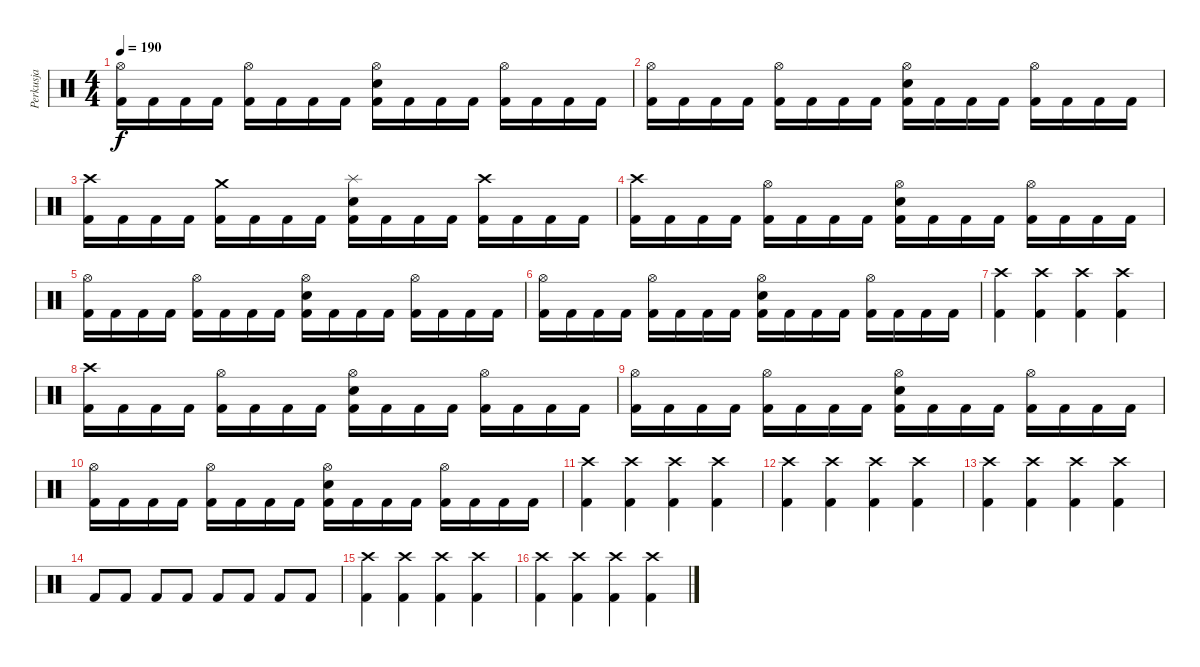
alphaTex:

\track ("Perkusja" "Perkusja") {instrument percussion}
\staff {score}
\articulation defaults
\ts (4 4)
\tempo 190
\clef neutral
\ks c
("Hi-Hat (open)" "Kick (hit) 2").16{dy f} "Kick (hit) 2".16 "Kick (hit) 2".16 "Kick (hit) 2".16 ("Hi-Hat (open)" "Kick (hit) 2").16 "Kick (hit) 2".16 "Kick (hit) 2".16 "Kick (hit) 2".16 ("Hi-Hat (open)" "Electric Snare (hit)" "Kick (hit) 2").16 "Kick (hit) 2".16 "Kick (hit) 2".16 "Kick (hit) 2".16 ("Hi-Hat (open)" "Kick (hit) 2").16 "Kick (hit) 2".16 "Kick (hit) 2".16 "Kick (hit) 2".16 |
("Hi-Hat (open)" "Kick (hit) 2").16 "Kick (hit) 2".16 "Kick (hit) 2".16 "Kick (hit) 2".16 ("Hi-Hat (open)" "Kick (hit) 2").16 "Kick (hit) 2".16 "Kick (hit) 2".16 "Kick (hit) 2".16 ("Hi-Hat (open)" "Electric Snare (hit)" "Kick (hit) 2").16 "Kick (hit) 2".16 "Kick (hit) 2".16 "Kick (hit) 2".16 ("Hi-Hat (open)" "Kick (hit) 2").16 "Kick (hit) 2".16 "Kick (hit) 2".16 "Kick (hit) 2".16 |
("Crash high (hit)" "Kick (hit) 2").16 "Kick (hit) 2".16 "Kick (hit) 2".16 "Kick (hit) 2".16 ("Crash medium (hit)" "Kick (hit) 2").16 "Kick (hit) 2".16 "Kick (hit) 2".16 "Kick (hit) 2".16 ("Splash (hit)" "Electric Snare (hit)" "Kick (hit) 2").16 "Kick (hit) 2".16 "Kick (hit) 2".16 "Kick (hit) 2".16 ("Crash high (hit)" "Kick (hit) 2").16 "Kick (hit) 2".16 "Kick (hit) 2".16 "Kick (hit) 2".16 |
("Crash high (hit)" "Kick (hit) 2").16 "Kick (hit) 2".16 "Kick (hit) 2".16 "Kick (hit) 2".16 ("Hi-Hat (open)" "Kick (hit) 2").16 "Kick (hit) 2".16 "Kick (hit) 2".16 "Kick (hit) 2".16 ("Hi-Hat (open)" "Electric Snare (hit)" "Kick (hit) 2").16 "Kick (hit) 2".16 "Kick (hit) 2".16 "Kick (hit) 2".16 ("Hi-Hat (open)" "Kick (hit) 2").16 "Kick (hit) 2".16 "Kick (hit) 2".16 "Kick (hit) 2".16 |
("Hi-Hat (open)" "Kick (hit) 2").16 "Kick (hit) 2".16 "Kick (hit) 2".16 "Kick (hit) 2".16 ("Hi-Hat (open)" "Kick (hit) 2").16 "Kick (hit) 2".16 "Kick (hit) 2".16 "Kick (hit) 2".16 ("Hi-Hat (open)" "Electric Snare (hit)" "Kick (hit) 2").16 "Kick (hit) 2".16 "Kick (hit) 2".16 "Kick (hit) 2".16 ("Hi-Hat (open)" "Kick (hit) 2").16 "Kick (hit) 2".16 "Kick (hit) 2".16 "Kick (hit) 2".16 |
("Hi-Hat (open)" "Kick (hit) 2").16 "Kick (hit) 2".16 "Kick (hit) 2".16 "Kick (hit) 2".16 ("Hi-Hat (open)" "Kick (hit) 2").16 "Kick (hit) 2".16 "Kick (hit) 2".16 "Kick (hit) 2".16 ("Hi-Hat (open)" "Electric Snare (hit)" "Kick (hit) 2").16 "Kick (hit) 2".16 "Kick (hit) 2".16 "Kick (hit) 2".16 ("Hi-Hat (open)" "Kick (hit) 2").16 "Kick (hit) 2".16 "Kick (hit) 2".16 "Kick (hit) 2".16 |
("Crash high (hit)" "Kick (hit) 2").4 ("Crash high (hit)" "Kick (hit) 2").4 ("Crash high (hit)" "Kick (hit) 2").4 ("Crash high (hit)" "Kick (hit) 2").4 |
("Crash high (hit)" "Kick (hit) 2").16 "Kick (hit) 2".16 "Kick (hit) 2".16 "Kick (hit) 2".16 ("Hi-Hat (open)" "Kick (hit) 2").16 "Kick (hit) 2".16 "Kick (hit) 2".16 "Kick (hit) 2".16 ("Hi-Hat (open)" "Electric Snare (hit)" "Kick (hit) 2").16 "Kick (hit) 2".16 "Kick (hit) 2".16 "Kick (hit) 2".16 ("Hi-Hat (open)" "Kick (hit) 2").16 "Kick (hit) 2".16 "Kick (hit) 2".16 "Kick (hit) 2".16 |
("Hi-Hat (open)" "Kick (hit) 2").16 "Kick (hit) 2".16 "Kick (hit) 2".16 "Kick (hit) 2".16 ("Hi-Hat (open)" "Kick (hit) 2").16 "Kick (hit) 2".16 "Kick (hit) 2".16 "Kick (hit) 2".16 ("Hi-Hat (open)" "Electric Snare (hit)" "Kick (hit) 2").16 "Kick (hit) 2".16 "Kick (hit) 2".16 "Kick (hit) 2".16 ("Hi-Hat (open)" "Kick (hit) 2").16 "Kick (hit) 2".16 "Kick (hit) 2".16 "Kick (hit) 2".16 |
("Hi-Hat (open)" "Kick (hit) 2").16 "Kick (hit) 2".16 "Kick (hit) 2".16 "Kick (hit) 2".16 ("Hi-Hat (open)" "Kick (hit) 2").16 "Kick (hit) 2".16 "Kick (hit) 2".16 "Kick (hit) 2".16 ("Hi-Hat (open)" "Electric Snare (hit)" "Kick (hit) 2").16 "Kick (hit) 2".16 "Kick (hit) 2".16 "Kick (hit) 2".16 ("Hi-Hat (open)" "Kick (hit) 2").16 "Kick (hit) 2".16 "Kick (hit) 2".16 "Kick (hit) 2".16 |
("Crash high (hit)" "Kick (hit) 2").4 ("Crash high (hit)" "Kick (hit) 2").4 ("Crash high (hit)" "Kick (hit) 2").4 ("Crash high (hit)" "Kick (hit) 2").4 |
("Crash high (hit)" "Kick (hit) 2").4 ("Crash high (hit)" "Kick (hit) 2").4 ("Crash high (hit)" "Kick (hit) 2").4 ("Crash high (hit)" "Kick (hit) 2").4 |
("Crash high (hit)" "Kick (hit) 2").4 ("Crash high (hit)" "Kick (hit) 2").4 ("Crash high (hit)" "Kick (hit) 2").4 ("Crash high (hit)" "Kick (hit) 2").4 |
"Kick (hit) 2".8 "Kick (hit) 2".8 "Kick (hit) 2".8 "Kick (hit) 2".8 "Kick (hit) 2".8 "Kick (hit) 2".8 "Kick (hit) 2".8 "Kick (hit) 2".8 |
("Crash high (hit)" "Kick (hit) 2").4 ("Crash high (hit)" "Kick (hit) 2").4 ("Crash high (hit)" "Kick (hit) 2").4 ("Crash high (hit)" "Kick (hit) 2").4 |
("Crash high (hit)" "Kick (hit) 2").4 ("Crash high (hit)" "Kick (hit) 2").4 ("Crash high (hit)" "Kick (hit) 2").4 ("Crash high (hit)" "Kick (hit) 2").4
